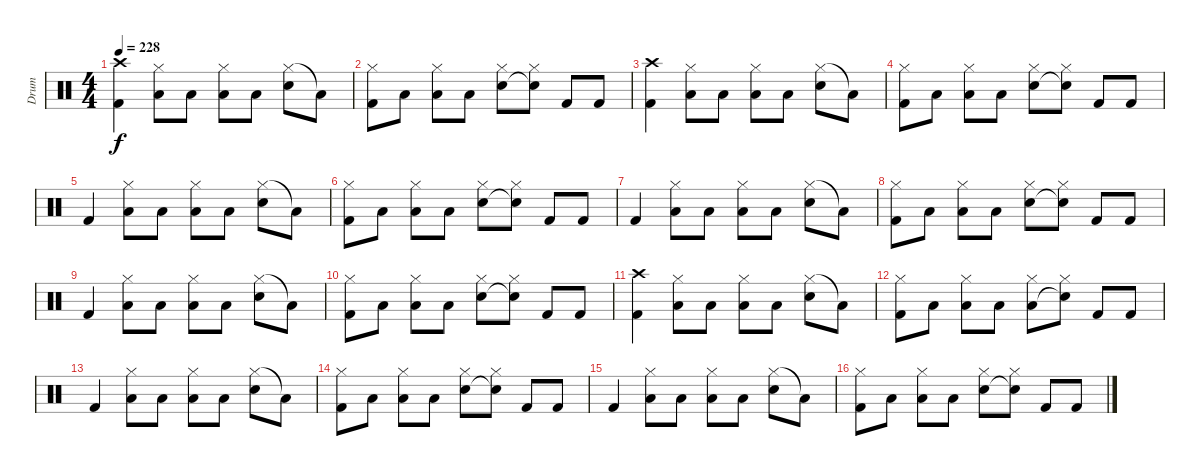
\track ("Drum" "Drum") {instrument percussion}
\staff {score}
\articulation defaults
\ts (4 4)
\tempo 228
\clef neutral
\ks c
("Crash high (hit)" "Kick (hit) 2").4{dy f} ("Hi-Hat (closed)" "Low Floor Tom (hit)").8 "Low Floor Tom (hit)".8 ("Hi-Hat (closed)" "Low Floor Tom (hit)").8 "Low Floor Tom (hit)".8 ("Hi-Hat (closed)" "Snare (hit) 2").8 "Low Floor Tom (hit)"{t}.8 |
("Hi-Hat (closed)" "Kick (hit) 2").8 "Low Floor Tom (hit)".8 ("Hi-Hat (closed)" "Low Floor Tom (hit)").8 "Low Floor Tom (hit)".8 ("Hi-Hat (closed)" "Snare (hit) 2").8 ("Hi-Hat (closed)" "Snare (hit) 2"{t}).8 "Kick (hit) 2".8 "Kick (hit) 2".8 |
("Crash high (hit)" "Kick (hit) 2").4 ("Hi-Hat (closed)" "Low Floor Tom (hit)").8 "Low Floor Tom (hit)".8 ("Hi-Hat (closed)" "Low Floor Tom (hit)").8 "Low Floor Tom (hit)".8 ("Hi-Hat (closed)" "Snare (hit) 2").8 "Low Floor Tom (hit)"{t}.8 |
("Hi-Hat (closed)" "Kick (hit) 2").8 "Low Floor Tom (hit)".8 ("Hi-Hat (closed)" "Low Floor Tom (hit)").8 "Low Floor Tom (hit)".8 ("Hi-Hat (closed)" "Snare (hit) 2").8 ("Hi-Hat (closed)" "Snare (hit) 2"{t}).8 "Kick (hit) 2".8 "Kick (hit) 2".8 |
"Kick (hit) 2".4 ("Hi-Hat (closed)" "Low Floor Tom (hit)").8 "Low Floor Tom (hit)".8 ("Hi-Hat (closed)" "Low Floor Tom (hit)").8 "Low Floor Tom (hit)".8 ("Hi-Hat (closed)" "Snare (hit) 2").8 "Low Floor Tom (hit)"{t}.8 |
("Hi-Hat (closed)" "Kick (hit) 2").8 "Low Floor Tom (hit)".8 ("Hi-Hat (closed)" "Low Floor Tom (hit)").8 "Low Floor Tom (hit)".8 ("Hi-Hat (closed)" "Snare (hit) 2").8 ("Hi-Hat (closed)" "Snare (hit) 2"{t}).8 "Kick (hit) 2".8 "Kick (hit) 2".8 |
"Kick (hit) 2".4 ("Hi-Hat (closed)" "Low Floor Tom (hit)").8 "Low Floor Tom (hit)".8 ("Hi-Hat (closed)" "Low Floor Tom (hit)").8 "Low Floor Tom (hit)".8 ("Hi-Hat (closed)" "Snare (hit) 2").8 "Low Floor Tom (hit)"{t}.8 |
("Hi-Hat (closed)" "Kick (hit) 2").8 "Low Floor Tom (hit)".8 ("Hi-Hat (closed)" "Low Floor Tom (hit)").8 "Low Floor Tom (hit)".8 ("Hi-Hat (closed)" "Snare (hit) 2").8 ("Hi-Hat (closed)" "Snare (hit) 2"{t}).8 "Kick (hit) 2".8 "Kick (hit) 2".8 |
"Kick (hit) 2".4 ("Hi-Hat (closed)" "Low Floor Tom (hit)").8 "Low Floor Tom (hit)".8 ("Hi-Hat (closed)" "Low Floor Tom (hit)").8 "Low Floor Tom (hit)".8 ("Hi-Hat (closed)" "Snare (hit) 2").8 "Low Floor Tom (hit)"{t}.8 |
("Hi-Hat (closed)" "Kick (hit) 2").8 "Low Floor Tom (hit)".8 ("Hi-Hat (closed)" "Low Floor Tom (hit)").8 "Low Floor Tom (hit)".8 ("Hi-Hat (closed)" "Snare (hit) 2").8 ("Hi-Hat (closed)" "Snare (hit) 2"{t}).8 "Kick (hit) 2".8 "Kick (hit) 2".8 |
("Crash high (hit)" "Kick (hit) 2").4 ("Hi-Hat (closed)" "Low Floor Tom (hit)").8 "Low Floor Tom (hit)".8 ("Hi-Hat (closed)" "Low Floor Tom (hit)").8 "Low Floor Tom (hit)".8 ("Hi-Hat (closed)" "Snare (hit) 2").8 "Low Floor Tom (hit)"{t}.8 |
("Hi-Hat (closed)" "Kick (hit) 2").8 "Low Floor Tom (hit)".8 ("Hi-Hat (closed)" "Low Floor Tom (hit)").8 "Low Floor Tom (hit)".8 ("Hi-Hat (closed)" "Low Floor Tom (hit)").8 ("Hi-Hat (closed)" "Snare (hit) 2"{t}).8 "Kick (hit) 2".8 "Kick (hit) 2".8 |
"Kick (hit) 2".4 ("Hi-Hat (closed)" "Low Floor Tom (hit)").8 "Low Floor Tom (hit)".8 ("Hi-Hat (closed)" "Low Floor Tom (hit)").8 "Low Floor Tom (hit)".8 ("Hi-Hat (closed)" "Snare (hit) 2").8 "Low Floor Tom (hit)"{t}.8 |
("Hi-Hat (closed)" "Kick (hit) 2").8 "Low Floor Tom (hit)".8 ("Hi-Hat (closed)" "Low Floor Tom (hit)").8 "Low Floor Tom (hit)".8 ("Hi-Hat (closed)" "Snare (hit) 2").8 ("Hi-Hat (closed)" "Snare (hit) 2"{t}).8 "Kick (hit) 2".8 "Kick (hit) 2".8 |
"Kick (hit) 2".4 ("Hi-Hat (closed)" "Low Floor Tom (hit)").8 "Low Floor Tom (hit)".8 ("Hi-Hat (closed)" "Low Floor Tom (hit)").8 "Low Floor Tom (hit)".8 ("Hi-Hat (closed)" "Snare (hit) 2").8 "Low Floor Tom (hit)"{t}.8 |
("Hi-Hat (closed)" "Kick (hit) 2").8 "Low Floor Tom (hit)".8 ("Hi-Hat (closed)" "Low Floor Tom (hit)").8 "Low Floor Tom (hit)".8 ("Hi-Hat (closed)" "Snare (hit) 2").8 ("Hi-Hat (closed)" "Snare (hit) 2"{t}).8 "Kick (hit) 2".8 "Kick (hit) 2".8
